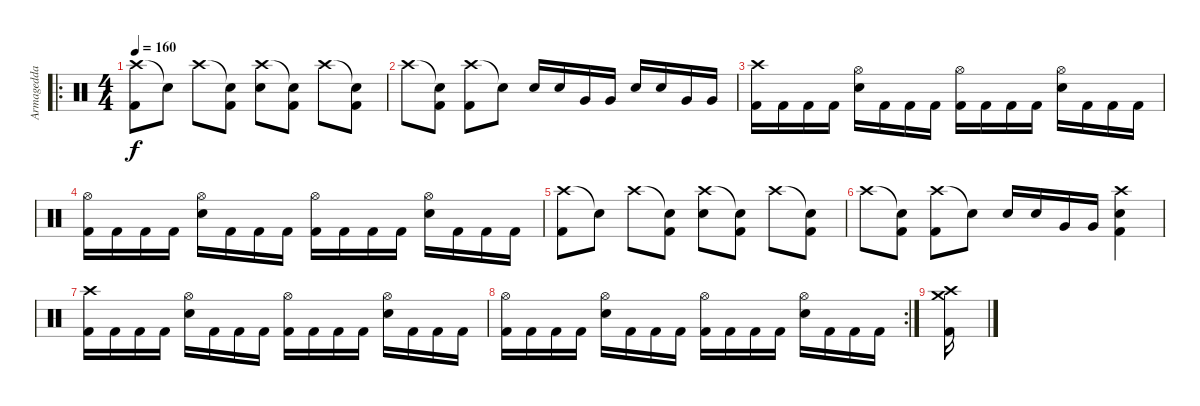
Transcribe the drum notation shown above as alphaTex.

\track ("Armagedda" "Armagedda") {instrument percussion}
\staff {score}
\articulation defaults
\ro
\ts (4 4)
\tempo 160
\clef neutral
\ks c
("Crash high (hit)" "Kick (hit) 2").8{dy f} "Snare (hit)"{t}.8 "Crash high (hit)".8 ("Snare (hit)"{t} "Kick (hit) 2").8 ("Crash high (hit)" "Snare (hit) 2").8 ("Snare (hit)"{t} "Kick (hit) 2").8 "Crash high (hit)".8 ("Snare (hit)"{t} "Kick (hit) 2").8 |
"Crash high (hit)".8 ("Snare (hit)"{t} "Kick (hit) 2").8 ("Crash high (hit)" "Kick (hit) 2").8 "Snare (hit)"{t}.8 "Snare (hit) 2".16 "Snare (hit) 2".16 "Very Low Tom (hit)".16 "Very Low Tom (hit)".16 "Snare (hit) 2".16 "Snare (hit) 2".16 "Very Low Tom (hit)".16 "Very Low Tom (hit)".16 |
("Crash high (hit)" "Kick (hit) 2").16 "Kick (hit) 2".16 "Kick (hit) 2".16 "Kick (hit) 2".16 ("Hi-Hat (open)" "Snare (hit) 2").16 "Kick (hit) 2".16 "Kick (hit) 2".16 "Kick (hit) 2".16 ("Hi-Hat (open)" "Kick (hit) 2").16 "Kick (hit) 2".16 "Kick (hit) 2".16 "Kick (hit) 2".16 ("Hi-Hat (open)" "Snare (hit) 2").16 "Kick (hit) 2".16 "Kick (hit) 2".16 "Kick (hit) 2".16 |
("Hi-Hat (open)" "Kick (hit) 2").16 "Kick (hit) 2".16 "Kick (hit) 2".16 "Kick (hit) 2".16 ("Hi-Hat (open)" "Snare (hit) 2").16 "Kick (hit) 2".16 "Kick (hit) 2".16 "Kick (hit) 2".16 ("Hi-Hat (open)" "Kick (hit) 2").16 "Kick (hit) 2".16 "Kick (hit) 2".16 "Kick (hit) 2".16 ("Hi-Hat (open)" "Snare (hit) 2").16 "Kick (hit) 2".16 "Kick (hit) 2".16 "Kick (hit) 2".16 |
("Crash high (hit)" "Kick (hit) 2").8 "Snare (hit)"{t}.8 "Crash high (hit)".8 ("Snare (hit)"{t} "Kick (hit) 2").8 ("Crash high (hit)" "Snare (hit) 2").8 ("Snare (hit)"{t} "Kick (hit) 2").8 "Crash high (hit)".8 ("Snare (hit)"{t} "Kick (hit) 2").8 |
"Crash high (hit)".8 ("Snare (hit)"{t} "Kick (hit) 2").8 ("Crash high (hit)" "Kick (hit) 2").8 "Snare (hit)"{t}.8 "Snare (hit) 2".16 "Snare (hit) 2".16 "Very Low Tom (hit)".16 "Very Low Tom (hit)".16 ("Crash high (hit)" "Snare (hit) 2" "Kick (hit) 2").4 |
("Crash high (hit)" "Kick (hit) 2").16 "Kick (hit) 2".16 "Kick (hit) 2".16 "Kick (hit) 2".16 ("Hi-Hat (open)" "Snare (hit) 2").16 "Kick (hit) 2".16 "Kick (hit) 2".16 "Kick (hit) 2".16 ("Hi-Hat (open)" "Kick (hit) 2").16 "Kick (hit) 2".16 "Kick (hit) 2".16 "Kick (hit) 2".16 ("Hi-Hat (open)" "Snare (hit) 2").16 "Kick (hit) 2".16 "Kick (hit) 2".16 "Kick (hit) 2".16 |
\rc 2
("Hi-Hat (open)" "Kick (hit) 2").16 "Kick (hit) 2".16 "Kick (hit) 2".16 "Kick (hit) 2".16 ("Hi-Hat (open)" "Snare (hit) 2").16 "Kick (hit) 2".16 "Kick (hit) 2".16 "Kick (hit) 2".16 ("Hi-Hat (open)" "Kick (hit) 2").16 "Kick (hit) 2".16 "Kick (hit) 2".16 "Kick (hit) 2".16 ("Hi-Hat (open)" "Snare (hit) 2").16 "Kick (hit) 2".16 "Kick (hit) 2".16 "Kick (hit) 2".16 |
("Crash medium (hit)" "Crash high (hit)" "Kick (hit) 2").16
